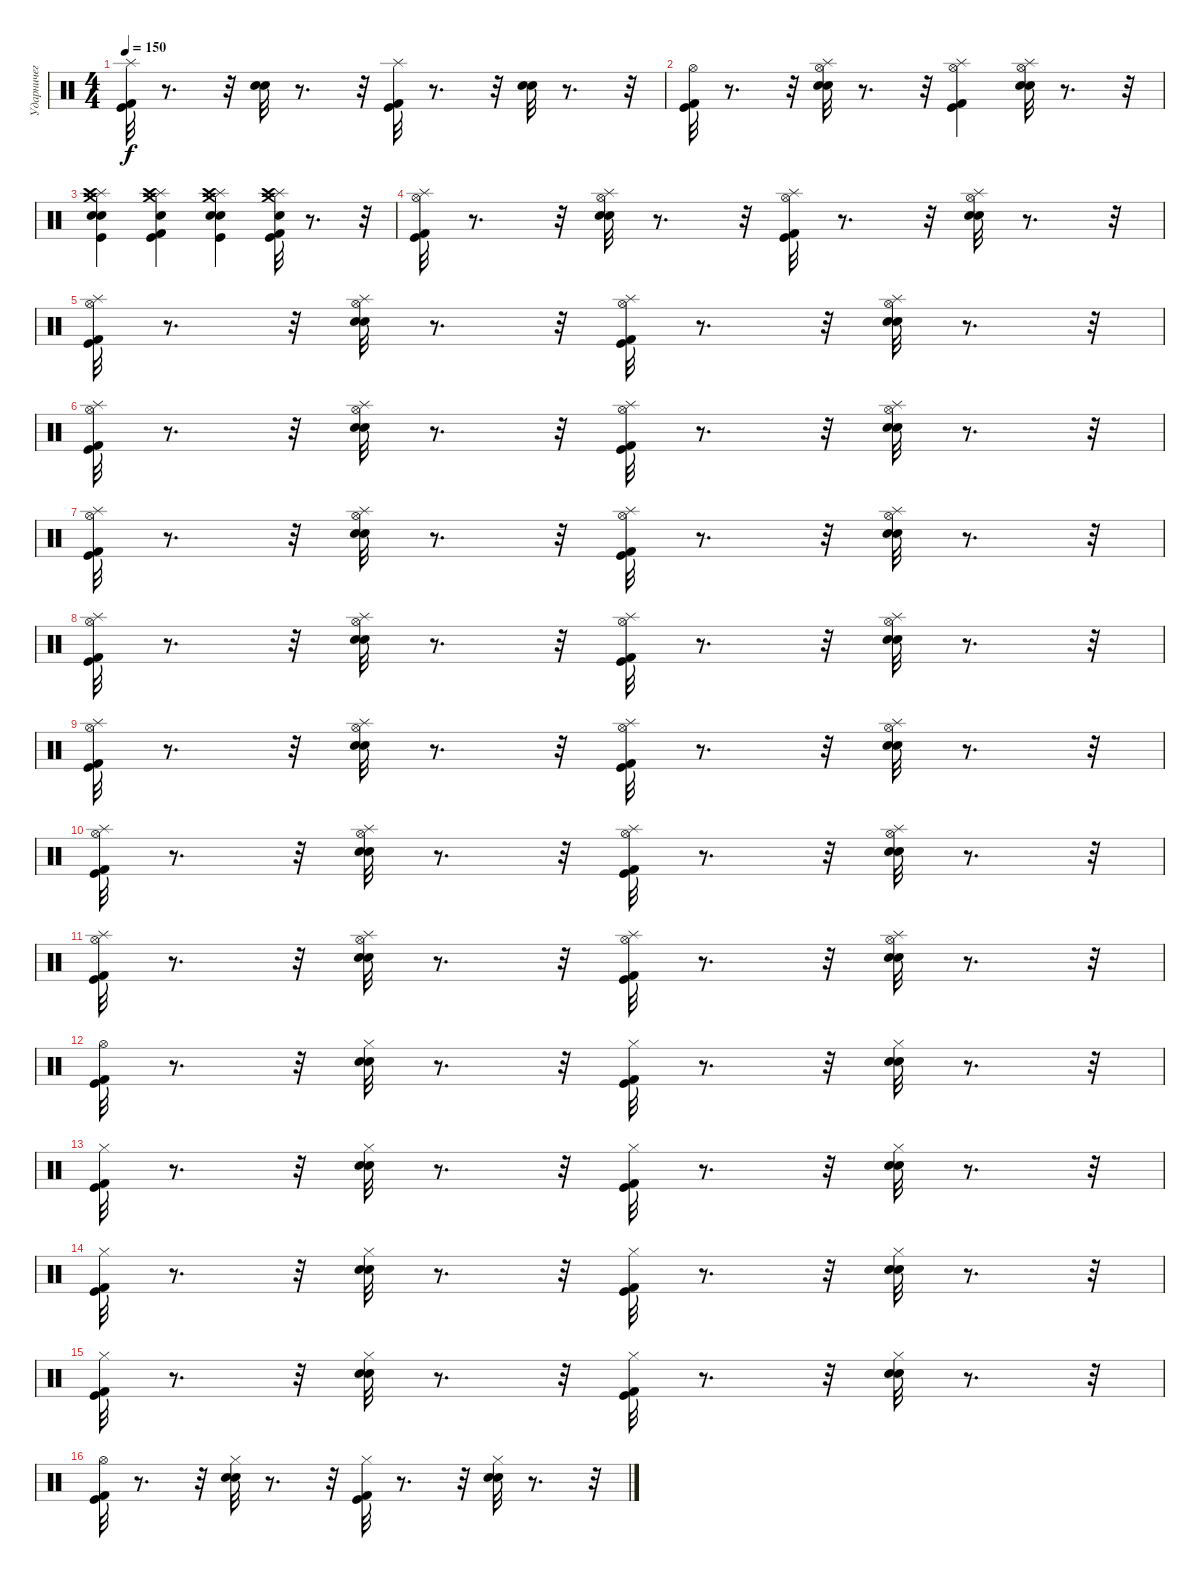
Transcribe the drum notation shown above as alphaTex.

\track ("Ударничег" "Ударничег") {instrument percussion}
\staff {score}
\articulation defaults
\ts (4 4)
\tempo 150
\clef neutral
\ks c
("Splash (hit)" "Kick (hit) 2" "Kick (hit)").32{dy f} r.8{d} r.32 ("Snare (hit) 2" "Electric Snare (hit)").32 r.8{d} r.32 ("Splash (hit)" "Kick (hit)" "Kick (hit) 2").32 r.8{d} r.32 ("Snare (hit) 2" "Electric Snare (hit)").32 r.8{d} r.32 |
("Hi-Hat (open)" "Kick (hit)" "Kick (hit) 2").32 r.8{d} r.32 ("Splash (hit)" "Hi-Hat (open)" "Snare (hit) 2" "Electric Snare (hit)").32 r.8{d} r.32 ("Splash (hit)" "Hi-Hat (open)" "Kick (hit)" "Kick (hit) 2").4 ("Splash (hit)" "Hi-Hat (open)" "Snare (hit) 2" "Electric Snare (hit)").32 r.8{d} r.32 |
("Splash (hit)" "Crash high (hit)" "Crash medium (hit)" "Snare (hit) 2" "Electric Snare (hit)" "Kick (hit)").4 ("Splash (hit)" "Crash medium (hit)" "Crash high (hit)" "Kick (hit)" "Kick (hit) 2" "Electric Snare (hit)").4 ("Splash (hit)" "Crash high (hit)" "Crash medium (hit)" "Snare (hit) 2" "Electric Snare (hit)" "Kick (hit)").4 ("Splash (hit)" "Kick (hit)" "Kick (hit) 2" "Crash high (hit)" "Crash medium (hit)" "Snare (hit) 2").32 r.8{d} r.32 |
("Splash (hit)" "Hi-Hat (open)" "Kick (hit) 2" "Kick (hit)").32 r.8{d} r.32 ("Splash (hit)" "Hi-Hat (open)" "Snare (hit) 2" "Electric Snare (hit)").32 r.8{d} r.32 ("Splash (hit)" "Hi-Hat (open)" "Kick (hit) 2" "Kick (hit)").32 r.8{d} r.32 ("Splash (hit)" "Hi-Hat (open)" "Snare (hit) 2" "Electric Snare (hit)").32 r.8{d} r.32 |
("Splash (hit)" "Hi-Hat (open)" "Kick (hit) 2" "Kick (hit)").32 r.8{d} r.32 ("Splash (hit)" "Hi-Hat (open)" "Snare (hit) 2" "Electric Snare (hit)").32 r.8{d} r.32 ("Splash (hit)" "Hi-Hat (open)" "Kick (hit) 2" "Kick (hit)").32 r.8{d} r.32 ("Splash (hit)" "Hi-Hat (open)" "Snare (hit) 2" "Electric Snare (hit)").32 r.8{d} r.32 |
("Splash (hit)" "Hi-Hat (open)" "Kick (hit) 2" "Kick (hit)").32 r.8{d} r.32 ("Splash (hit)" "Hi-Hat (open)" "Snare (hit) 2" "Electric Snare (hit)").32 r.8{d} r.32 ("Splash (hit)" "Hi-Hat (open)" "Kick (hit) 2" "Kick (hit)").32 r.8{d} r.32 ("Splash (hit)" "Hi-Hat (open)" "Snare (hit) 2" "Electric Snare (hit)").32 r.8{d} r.32 |
("Splash (hit)" "Hi-Hat (open)" "Kick (hit) 2" "Kick (hit)").32 r.8{d} r.32 ("Splash (hit)" "Hi-Hat (open)" "Snare (hit) 2" "Electric Snare (hit)").32 r.8{d} r.32 ("Splash (hit)" "Hi-Hat (open)" "Kick (hit) 2" "Kick (hit)").32 r.8{d} r.32 ("Splash (hit)" "Hi-Hat (open)" "Snare (hit) 2" "Electric Snare (hit)").32 r.8{d} r.32 |
("Splash (hit)" "Hi-Hat (open)" "Kick (hit) 2" "Kick (hit)").32 r.8{d} r.32 ("Splash (hit)" "Hi-Hat (open)" "Snare (hit) 2" "Electric Snare (hit)").32 r.8{d} r.32 ("Splash (hit)" "Hi-Hat (open)" "Kick (hit) 2" "Kick (hit)").32 r.8{d} r.32 ("Splash (hit)" "Hi-Hat (open)" "Snare (hit) 2" "Electric Snare (hit)").32 r.8{d} r.32 |
("Splash (hit)" "Hi-Hat (open)" "Kick (hit) 2" "Kick (hit)").32 r.8{d} r.32 ("Splash (hit)" "Hi-Hat (open)" "Snare (hit) 2" "Electric Snare (hit)").32 r.8{d} r.32 ("Splash (hit)" "Hi-Hat (open)" "Kick (hit) 2" "Kick (hit)").32 r.8{d} r.32 ("Splash (hit)" "Hi-Hat (open)" "Snare (hit) 2" "Electric Snare (hit)").32 r.8{d} r.32 |
("Splash (hit)" "Hi-Hat (open)" "Kick (hit) 2" "Kick (hit)").32 r.8{d} r.32 ("Splash (hit)" "Hi-Hat (open)" "Snare (hit) 2" "Electric Snare (hit)").32 r.8{d} r.32 ("Splash (hit)" "Hi-Hat (open)" "Kick (hit) 2" "Kick (hit)").32 r.8{d} r.32 ("Splash (hit)" "Hi-Hat (open)" "Snare (hit) 2" "Electric Snare (hit)").32 r.8{d} r.32 |
("Splash (hit)" "Hi-Hat (open)" "Kick (hit) 2" "Kick (hit)").32 r.8{d} r.32 ("Splash (hit)" "Hi-Hat (open)" "Snare (hit) 2" "Electric Snare (hit)").32 r.8{d} r.32 ("Splash (hit)" "Hi-Hat (open)" "Kick (hit) 2" "Kick (hit)").32 r.8{d} r.32 ("Splash (hit)" "Hi-Hat (open)" "Snare (hit) 2" "Electric Snare (hit)").32 r.8{d} r.32 |
("Hi-Hat (open)" "Kick (hit) 2" "Kick (hit)").32 r.8{d} r.32 ("Hi-Hat (closed)" "Snare (hit) 2" "Electric Snare (hit)").32 r.8{d} r.32 ("Hi-Hat (closed)" "Kick (hit) 2" "Kick (hit)").32 r.8{d} r.32 ("Hi-Hat (closed)" "Snare (hit) 2" "Electric Snare (hit)").32 r.8{d} r.32 |
("Hi-Hat (closed)" "Kick (hit) 2" "Kick (hit)").32 r.8{d} r.32 ("Hi-Hat (closed)" "Snare (hit) 2" "Electric Snare (hit)").32 r.8{d} r.32 ("Hi-Hat (closed)" "Kick (hit) 2" "Kick (hit)").32 r.8{d} r.32 ("Hi-Hat (closed)" "Snare (hit) 2" "Electric Snare (hit)").32 r.8{d} r.32 |
("Hi-Hat (closed)" "Kick (hit) 2" "Kick (hit)").32 r.8{d} r.32 ("Hi-Hat (closed)" "Snare (hit) 2" "Electric Snare (hit)").32 r.8{d} r.32 ("Hi-Hat (closed)" "Kick (hit) 2" "Kick (hit)").32 r.8{d} r.32 ("Hi-Hat (closed)" "Snare (hit) 2" "Electric Snare (hit)").32 r.8{d} r.32 |
("Hi-Hat (closed)" "Kick (hit) 2" "Kick (hit)").32 r.8{d} r.32 ("Hi-Hat (closed)" "Snare (hit) 2" "Electric Snare (hit)").32 r.8{d} r.32 ("Hi-Hat (closed)" "Kick (hit) 2" "Kick (hit)").32 r.8{d} r.32 ("Hi-Hat (closed)" "Snare (hit) 2" "Electric Snare (hit)").32 r.8{d} r.32 |
("Hi-Hat (open)" "Kick (hit) 2" "Kick (hit)").32 r.8{d} r.32 ("Hi-Hat (closed)" "Snare (hit) 2" "Electric Snare (hit)").32 r.8{d} r.32 ("Hi-Hat (closed)" "Kick (hit) 2" "Kick (hit)").32 r.8{d} r.32 ("Hi-Hat (closed)" "Snare (hit) 2" "Electric Snare (hit)").32 r.8{d} r.32
